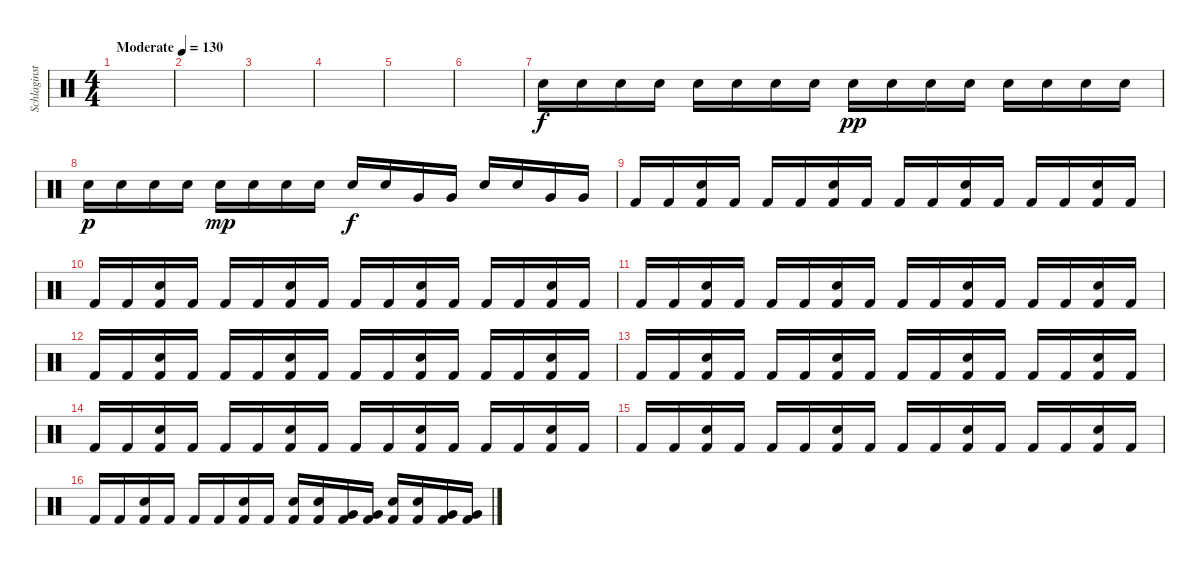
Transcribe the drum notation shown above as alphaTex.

\track ("Schlaginstrumente - Auswahl" "Schlaginst") {instrument percussion}
\staff {score}
\articulation defaults
\ts (4 4)
\tempo (130 "Moderate")
\clef neutral
\ks c
|
|
|
|
|
|
"Electric Snare (hit)".16 "Electric Snare (hit)".16 "Electric Snare (hit)".16 "Electric Snare (hit)".16 "Electric Snare (hit)".16 "Electric Snare (hit)".16 "Electric Snare (hit)".16 "Electric Snare (hit)".16 "Electric Snare (hit)".16{dy pp} "Electric Snare (hit)".16 "Electric Snare (hit)".16 "Electric Snare (hit)".16 "Electric Snare (hit)".16 "Electric Snare (hit)".16 "Electric Snare (hit)".16 "Electric Snare (hit)".16 |
"Electric Snare (hit)".16{dy p} "Electric Snare (hit)".16 "Electric Snare (hit)".16 "Electric Snare (hit)".16 "Electric Snare (hit)".16{dy mp} "Electric Snare (hit)".16 "Electric Snare (hit)".16 "Electric Snare (hit)".16 "Electric Snare (hit)".16{dy f} "Electric Snare (hit)".16 "Very Low Tom (hit)".16 "Very Low Tom (hit)".16 "Electric Snare (hit)".16 "Electric Snare (hit)".16 "Very Low Tom (hit)".16 "Very Low Tom (hit)".16 |
"Kick (hit) 2".16 "Kick (hit) 2".16 ("Electric Snare (hit)" "Kick (hit) 2").16 "Kick (hit) 2".16 "Kick (hit) 2".16 "Kick (hit) 2".16 ("Electric Snare (hit)" "Kick (hit) 2").16 "Kick (hit) 2".16 "Kick (hit) 2".16 "Kick (hit) 2".16 ("Electric Snare (hit)" "Kick (hit) 2").16 "Kick (hit) 2".16 "Kick (hit) 2".16 "Kick (hit) 2".16 ("Electric Snare (hit)" "Kick (hit) 2").16 "Kick (hit) 2".16 |
"Kick (hit) 2".16 "Kick (hit) 2".16 ("Electric Snare (hit)" "Kick (hit) 2").16 "Kick (hit) 2".16 "Kick (hit) 2".16 "Kick (hit) 2".16 ("Electric Snare (hit)" "Kick (hit) 2").16 "Kick (hit) 2".16 "Kick (hit) 2".16 "Kick (hit) 2".16 ("Electric Snare (hit)" "Kick (hit) 2").16 "Kick (hit) 2".16 "Kick (hit) 2".16 "Kick (hit) 2".16 ("Electric Snare (hit)" "Kick (hit) 2").16 "Kick (hit) 2".16 |
"Kick (hit) 2".16 "Kick (hit) 2".16 ("Electric Snare (hit)" "Kick (hit) 2").16 "Kick (hit) 2".16 "Kick (hit) 2".16 "Kick (hit) 2".16 ("Electric Snare (hit)" "Kick (hit) 2").16 "Kick (hit) 2".16 "Kick (hit) 2".16 "Kick (hit) 2".16 ("Electric Snare (hit)" "Kick (hit) 2").16 "Kick (hit) 2".16 "Kick (hit) 2".16 "Kick (hit) 2".16 ("Electric Snare (hit)" "Kick (hit) 2").16 "Kick (hit) 2".16 |
"Kick (hit) 2".16 "Kick (hit) 2".16 ("Electric Snare (hit)" "Kick (hit) 2").16 "Kick (hit) 2".16 "Kick (hit) 2".16 "Kick (hit) 2".16 ("Electric Snare (hit)" "Kick (hit) 2").16 "Kick (hit) 2".16 "Kick (hit) 2".16 "Kick (hit) 2".16 ("Electric Snare (hit)" "Kick (hit) 2").16 "Kick (hit) 2".16 "Kick (hit) 2".16 "Kick (hit) 2".16 ("Electric Snare (hit)" "Kick (hit) 2").16 "Kick (hit) 2".16 |
"Kick (hit) 2".16 "Kick (hit) 2".16 ("Electric Snare (hit)" "Kick (hit) 2").16 "Kick (hit) 2".16 "Kick (hit) 2".16 "Kick (hit) 2".16 ("Electric Snare (hit)" "Kick (hit) 2").16 "Kick (hit) 2".16 "Kick (hit) 2".16 "Kick (hit) 2".16 ("Electric Snare (hit)" "Kick (hit) 2").16 "Kick (hit) 2".16 "Kick (hit) 2".16 "Kick (hit) 2".16 ("Electric Snare (hit)" "Kick (hit) 2").16 "Kick (hit) 2".16 |
"Kick (hit) 2".16 "Kick (hit) 2".16 ("Electric Snare (hit)" "Kick (hit) 2").16 "Kick (hit) 2".16 "Kick (hit) 2".16 "Kick (hit) 2".16 ("Electric Snare (hit)" "Kick (hit) 2").16 "Kick (hit) 2".16 "Kick (hit) 2".16 "Kick (hit) 2".16 ("Electric Snare (hit)" "Kick (hit) 2").16 "Kick (hit) 2".16 "Kick (hit) 2".16 "Kick (hit) 2".16 ("Electric Snare (hit)" "Kick (hit) 2").16 "Kick (hit) 2".16 |
"Kick (hit) 2".16 "Kick (hit) 2".16 ("Electric Snare (hit)" "Kick (hit) 2").16 "Kick (hit) 2".16 "Kick (hit) 2".16 "Kick (hit) 2".16 ("Electric Snare (hit)" "Kick (hit) 2").16 "Kick (hit) 2".16 "Kick (hit) 2".16 "Kick (hit) 2".16 ("Electric Snare (hit)" "Kick (hit) 2").16 "Kick (hit) 2".16 "Kick (hit) 2".16 "Kick (hit) 2".16 ("Electric Snare (hit)" "Kick (hit) 2").16 "Kick (hit) 2".16 |
"Kick (hit) 2".16 "Kick (hit) 2".16 ("Electric Snare (hit)" "Kick (hit) 2").16 "Kick (hit) 2".16 "Kick (hit) 2".16 "Kick (hit) 2".16 ("Electric Snare (hit)" "Kick (hit) 2").16 "Kick (hit) 2".16 ("Electric Snare (hit)" "Kick (hit) 2").16 ("Electric Snare (hit)" "Kick (hit) 2").16 ("Very Low Tom (hit)" "Kick (hit) 2").16 ("Very Low Tom (hit)" "Kick (hit) 2").16 ("Electric Snare (hit)" "Kick (hit) 2").16 ("Electric Snare (hit)" "Kick (hit) 2").16 ("Very Low Tom (hit)" "Kick (hit) 2").16 ("Very Low Tom (hit)" "Kick (hit) 2").16
